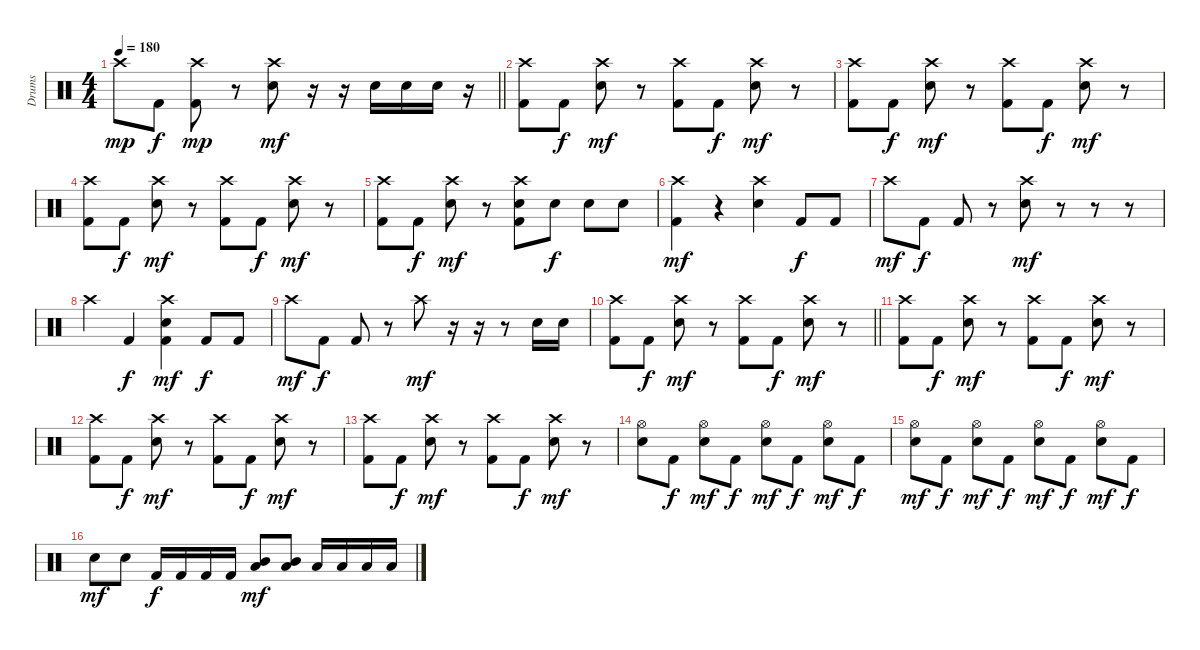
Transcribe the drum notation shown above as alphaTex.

\track ("Drums" "Drums") {instrument percussion}
\staff {score}
\articulation defaults
\ts (4 4)
\tempo 180
\clef neutral
\barLineRight lightlight
\ks c "Crash high (hit)".8{dy mp} "Kick (hit) 2".8{dy f}
("Crash high (hit)" "Kick (hit) 2").8{dy mp} r.8 ("Crash high (hit)" "Electric Snare (hit)").8{dy mf} r.16 r.16 "Electric Snare (hit)".16 "Electric Snare (hit)".16 "Electric Snare (hit)".16 r.16 |
("Crash high (hit)" "Kick (hit) 2").8 "Kick (hit) 2".8{dy f} ("Crash high (hit)" "Electric Snare (hit)").8{dy mf} r.8 ("Crash high (hit)" "Kick (hit) 2").8 "Kick (hit) 2".8{dy f} ("Crash high (hit)" "Electric Snare (hit)").8{dy mf} r.8 |
("Crash high (hit)" "Kick (hit) 2").8 "Kick (hit) 2".8{dy f} ("Crash high (hit)" "Electric Snare (hit)").8{dy mf} r.8 ("Crash high (hit)" "Kick (hit) 2").8 "Kick (hit) 2".8{dy f} ("Crash high (hit)" "Electric Snare (hit)").8{dy mf} r.8 |
("Crash high (hit)" "Kick (hit) 2").8 "Kick (hit) 2".8{dy f} ("Crash high (hit)" "Electric Snare (hit)").8{dy mf} r.8 ("Crash high (hit)" "Kick (hit) 2").8 "Kick (hit) 2".8{dy f} ("Crash high (hit)" "Electric Snare (hit)").8{dy mf} r.8 |
("Crash high (hit)" "Kick (hit) 2").8 "Kick (hit) 2".8{dy f} ("Crash high (hit)" "Electric Snare (hit)").8{dy mf} r.8 ("Crash high (hit)" "Electric Snare (hit)" "Kick (hit) 2").8 "Electric Snare (hit)".8{dy f} "Electric Snare (hit)".8 "Electric Snare (hit)".8 |
("Crash high (hit)" "Kick (hit) 2").4{dy mf} r.4 ("Crash high (hit)" "Electric Snare (hit)").4 "Kick (hit) 2".8{dy f} "Kick (hit) 2".8 |
"Crash high (hit)".8{dy mf} "Kick (hit) 2".8{dy f} "Kick (hit) 2".8 r.8 ("Crash high (hit)" "Electric Snare (hit)").8{dy mf} r.8 r.8 r.8 |
"Crash high (hit)".4 "Kick (hit) 2".4{dy f} ("Crash high (hit)" "Electric Snare (hit)" "Kick (hit) 2").4{dy mf} "Kick (hit) 2".8{dy f} "Kick (hit) 2".8 |
"Crash high (hit)".8{dy mf} "Kick (hit) 2".8{dy f} "Kick (hit) 2".8 r.8 "Crash high (hit)".8{dy mf} r.16 r.16 r.8 "Electric Snare (hit)".16 "Electric Snare (hit)".16 |
\barLineRight lightlight
("Crash high (hit)" "Kick (hit) 2").8 "Kick (hit) 2".8{dy f} ("Crash high (hit)" "Electric Snare (hit)").8{dy mf} r.8 ("Crash high (hit)" "Kick (hit) 2").8 "Kick (hit) 2".8{dy f} ("Crash high (hit)" "Electric Snare (hit)").8{dy mf} r.8 |
("Crash high (hit)" "Kick (hit) 2").8 "Kick (hit) 2".8{dy f} ("Crash high (hit)" "Electric Snare (hit)").8{dy mf} r.8 ("Crash high (hit)" "Kick (hit) 2").8 "Kick (hit) 2".8{dy f} ("Crash high (hit)" "Electric Snare (hit)").8{dy mf} r.8 |
("Crash high (hit)" "Kick (hit) 2").8 "Kick (hit) 2".8{dy f} ("Crash high (hit)" "Electric Snare (hit)").8{dy mf} r.8 ("Crash high (hit)" "Kick (hit) 2").8 "Kick (hit) 2".8{dy f} ("Crash high (hit)" "Electric Snare (hit)").8{dy mf} r.8 |
("Crash high (hit)" "Kick (hit) 2").8 "Kick (hit) 2".8{dy f} ("Crash high (hit)" "Electric Snare (hit)").8{dy mf} r.8 ("Crash high (hit)" "Kick (hit) 2").8 "Kick (hit) 2".8{dy f} ("Crash high (hit)" "Electric Snare (hit)").8{dy mf} r.8 |
("Hi-Hat (open)" "Electric Snare (hit)").8 "Kick (hit) 2".8{dy f} ("Hi-Hat (open)" "Electric Snare (hit)").8{dy mf} "Kick (hit) 2".8{dy f} ("Hi-Hat (open)" "Electric Snare (hit)").8{dy mf} "Kick (hit) 2".8{dy f} ("Hi-Hat (open)" "Electric Snare (hit)").8{dy mf} "Kick (hit) 2".8{dy f} |
("Hi-Hat (open)" "Electric Snare (hit)").8{dy mf} "Kick (hit) 2".8{dy f} ("Hi-Hat (open)" "Electric Snare (hit)").8{dy mf} "Kick (hit) 2".8{dy f} ("Hi-Hat (open)" "Electric Snare (hit)").8{dy mf} "Kick (hit) 2".8{dy f} ("Hi-Hat (open)" "Electric Snare (hit)").8{dy mf} "Kick (hit) 2".8{dy f} |
"Electric Snare (hit)".8{dy mf} "Electric Snare (hit)".8 "Kick (hit) 2".16{dy f} "Kick (hit) 2".16 "Kick (hit) 2".16 "Kick (hit) 2".16 ("Low Tom (hit)" "Mid Tom (hit)").8{dy mf} ("Low Tom (hit)" "Mid Tom (hit)").8 "Low Tom (hit)".16 "Low Tom (hit)".16 "Low Tom (hit)".16 "Low Tom (hit)".16
